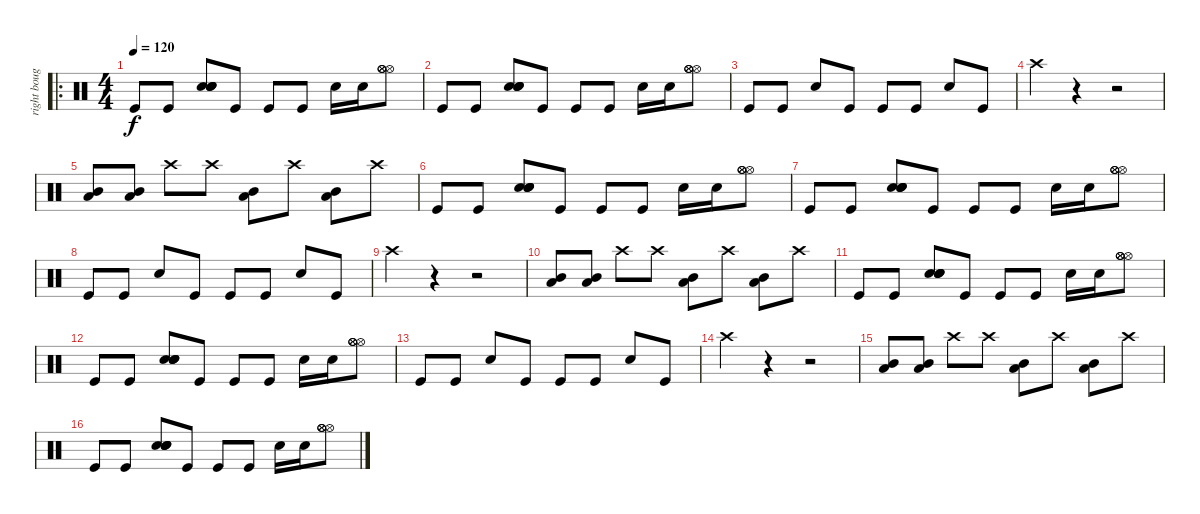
\track ("right bougie" "right boug") {instrument percussion}
\staff {score}
\articulation defaults
\ro
\ts (4 4)
\tempo 120
\clef neutral
\ks c "Kick (hit)".8{dy f} "Kick (hit)".8
("Electric Snare (hit)" "Electric Snare (hit)" "Electric Snare (hit)" "Electric Snare (hit)").8 "Kick (hit)".8 "Kick (hit)".8 "Kick (hit)".8 "Electric Snare (hit)".16 "Electric Snare (hit)".16 ("Hi-Hat (open)" "Hi-Hat (open)" "Hi-Hat (open)" "Hi-Hat (open)").8 |
"Kick (hit)".8 "Kick (hit)".8 ("Electric Snare (hit)" "Electric Snare (hit)" "Electric Snare (hit)" "Electric Snare (hit)").8 "Kick (hit)".8 "Kick (hit)".8 "Kick (hit)".8 "Electric Snare (hit)".16 "Electric Snare (hit)".16 ("Hi-Hat (open)" "Hi-Hat (open)" "Hi-Hat (open)" "Hi-Hat (open)").8 |
"Kick (hit)".8 "Kick (hit)".8 "Electric Snare (hit)".8 "Kick (hit)".8 "Kick (hit)".8 "Kick (hit)".8 "Electric Snare (hit)".8 "Kick (hit)".8 |
"Crash high (hit)".4 r.4 r.2 |
("Low Tom (hit)" "Mid Tom (hit)").8 ("Low Tom (hit)" "Mid Tom (hit)").8 "Crash high (hit)".8 "Crash high (hit)".8 ("Low Tom (hit)" "Mid Tom (hit)").8 "Crash high (hit)".8 ("Low Tom (hit)" "Mid Tom (hit)").8 "Crash high (hit)".8 |
"Kick (hit)".8 "Kick (hit)".8 ("Electric Snare (hit)" "Electric Snare (hit)" "Electric Snare (hit)" "Electric Snare (hit)").8 "Kick (hit)".8 "Kick (hit)".8 "Kick (hit)".8 "Electric Snare (hit)".16 "Electric Snare (hit)".16 ("Hi-Hat (open)" "Hi-Hat (open)" "Hi-Hat (open)" "Hi-Hat (open)").8 |
"Kick (hit)".8 "Kick (hit)".8 ("Electric Snare (hit)" "Electric Snare (hit)" "Electric Snare (hit)" "Electric Snare (hit)").8 "Kick (hit)".8 "Kick (hit)".8 "Kick (hit)".8 "Electric Snare (hit)".16 "Electric Snare (hit)".16 ("Hi-Hat (open)" "Hi-Hat (open)" "Hi-Hat (open)" "Hi-Hat (open)").8 |
"Kick (hit)".8 "Kick (hit)".8 "Electric Snare (hit)".8 "Kick (hit)".8 "Kick (hit)".8 "Kick (hit)".8 "Electric Snare (hit)".8 "Kick (hit)".8 |
"Crash high (hit)".4 r.4 r.2 |
("Low Tom (hit)" "Mid Tom (hit)").8 ("Low Tom (hit)" "Mid Tom (hit)").8 "Crash high (hit)".8 "Crash high (hit)".8 ("Low Tom (hit)" "Mid Tom (hit)").8 "Crash high (hit)".8 ("Low Tom (hit)" "Mid Tom (hit)").8 "Crash high (hit)".8 |
"Kick (hit)".8 "Kick (hit)".8 ("Electric Snare (hit)" "Electric Snare (hit)" "Electric Snare (hit)" "Electric Snare (hit)").8 "Kick (hit)".8 "Kick (hit)".8 "Kick (hit)".8 "Electric Snare (hit)".16 "Electric Snare (hit)".16 ("Hi-Hat (open)" "Hi-Hat (open)" "Hi-Hat (open)" "Hi-Hat (open)").8 |
"Kick (hit)".8 "Kick (hit)".8 ("Electric Snare (hit)" "Electric Snare (hit)" "Electric Snare (hit)" "Electric Snare (hit)").8 "Kick (hit)".8 "Kick (hit)".8 "Kick (hit)".8 "Electric Snare (hit)".16 "Electric Snare (hit)".16 ("Hi-Hat (open)" "Hi-Hat (open)" "Hi-Hat (open)" "Hi-Hat (open)").8 |
"Kick (hit)".8 "Kick (hit)".8 "Electric Snare (hit)".8 "Kick (hit)".8 "Kick (hit)".8 "Kick (hit)".8 "Electric Snare (hit)".8 "Kick (hit)".8 |
"Crash high (hit)".4 r.4 r.2 |
("Low Tom (hit)" "Mid Tom (hit)").8 ("Low Tom (hit)" "Mid Tom (hit)").8 "Crash high (hit)".8 "Crash high (hit)".8 ("Low Tom (hit)" "Mid Tom (hit)").8 "Crash high (hit)".8 ("Low Tom (hit)" "Mid Tom (hit)").8 "Crash high (hit)".8 |
"Kick (hit)".8 "Kick (hit)".8 ("Electric Snare (hit)" "Electric Snare (hit)" "Electric Snare (hit)" "Electric Snare (hit)").8 "Kick (hit)".8 "Kick (hit)".8 "Kick (hit)".8 "Electric Snare (hit)".16 "Electric Snare (hit)".16 ("Hi-Hat (open)" "Hi-Hat (open)" "Hi-Hat (open)" "Hi-Hat (open)").8
